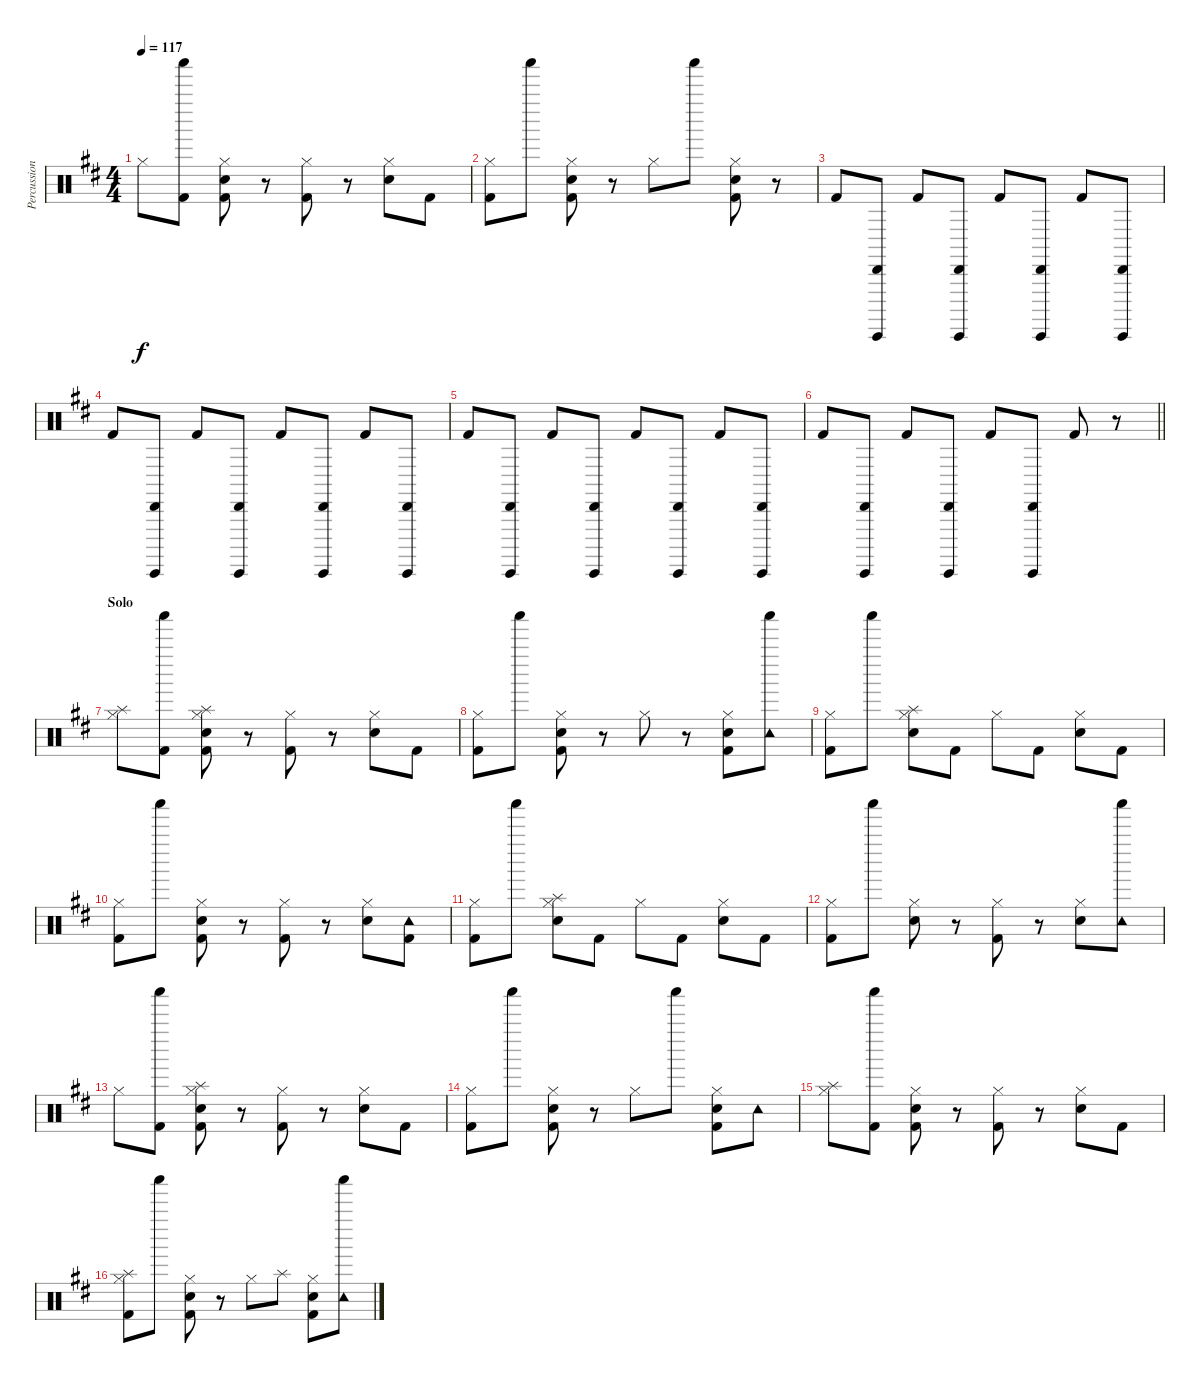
\track ("Percussion" "Percussion") {instrument percussion}
\staff {score}
\articulation defaults
\ts (4 4)
\tempo 117
\clef neutral
\ks d "Hi-Hat (closed)".8{dy f}
("Shaker (hit)" "Kick (hit) 2").8 ("Hi-Hat (closed)" "Snare (hit) 2" "Kick (hit) 2").8 r.8 ("Hi-Hat (closed)" "Kick (hit) 2").8 r.8 ("Hi-Hat (closed)" "Snare (hit) 2").8 "Kick (hit) 2".8 |
("Hi-Hat (closed)" "Kick (hit) 2").8 "Shaker (hit)".8 ("Hi-Hat (closed)" "Snare (hit) 2" "Kick (hit) 2").8 r.8 "Hi-Hat (closed)".8 "Shaker (hit)".8 ("Hi-Hat (closed)" "Snare (hit) 2" "Kick (hit) 2").8 r.8 |
"Kick (hit) 2".8 ("Guiro (hit)" "Cabasa (hit)").8 "Kick (hit) 2".8 ("Guiro (hit)" "Cabasa (hit)").8 "Kick (hit) 2".8 ("Guiro (hit)" "Cabasa (hit)").8 "Kick (hit) 2".8 ("Guiro (hit)" "Cabasa (hit)").8 |
"Kick (hit) 2".8 ("Guiro (hit)" "Cabasa (hit)").8 "Kick (hit) 2".8 ("Guiro (hit)" "Cabasa (hit)").8 "Kick (hit) 2".8 ("Guiro (hit)" "Cabasa (hit)").8 "Kick (hit) 2".8 ("Guiro (hit)" "Cabasa (hit)").8 |
"Kick (hit) 2".8 ("Guiro (hit)" "Cabasa (hit)").8 "Kick (hit) 2".8 ("Guiro (hit)" "Cabasa (hit)").8 "Kick (hit) 2".8 ("Guiro (hit)" "Cabasa (hit)").8 "Kick (hit) 2".8 ("Guiro (hit)" "Cabasa (hit)").8 |
\barLineRight lightlight "Kick (hit) 2".8
("Guiro (hit)" "Cabasa (hit)").8 "Kick (hit) 2".8 ("Guiro (hit)" "Cabasa (hit)").8 "Kick (hit) 2".8 ("Guiro (hit)" "Cabasa (hit)").8 "Kick (hit) 2".8 r.8 |
\section ("" "Solo")
("Hi-Hat (closed)" "Splash (hit)").8 ("Shaker (hit)" "Kick (hit) 2").8 ("Hi-Hat (closed)" "Splash (hit)" "Snare (hit) 2" "Kick (hit) 2").8 r.8 ("Hi-Hat (closed)" "Kick (hit) 2").8 r.8 ("Hi-Hat (closed)" "Snare (hit) 2").8 "Kick (hit) 2".8 |
("Hi-Hat (closed)" "Kick (hit) 2").8 "Shaker (hit)".8 ("Hi-Hat (closed)" "Snare (hit) 2" "Kick (hit) 2").8 r.8 "Hi-Hat (closed)".8 r.8 ("Hi-Hat (closed)" "Snare (hit) 2" "Kick (hit) 2").8 ("Shaker (hit)" "Tambourine (hit)").8 |
("Hi-Hat (closed)" "Kick (hit) 2").8 "Shaker (hit)".8 ("Hi-Hat (closed)" "Splash (hit)" "Snare (hit) 2").8 "Kick (hit) 2".8 "Hi-Hat (closed)".8 "Kick (hit) 2".8 ("Hi-Hat (closed)" "Snare (hit) 2").8 "Kick (hit) 2".8 |
("Hi-Hat (closed)" "Kick (hit) 2").8 "Shaker (hit)".8 ("Hi-Hat (closed)" "Snare (hit) 2" "Kick (hit) 2").8 r.8 ("Hi-Hat (closed)" "Kick (hit) 2").8 r.8 ("Hi-Hat (closed)" "Snare (hit) 2").8 ("Tambourine (hit)" "Kick (hit) 2").8 |
("Hi-Hat (closed)" "Kick (hit) 2").8 "Shaker (hit)".8 ("Hi-Hat (closed)" "Splash (hit)" "Snare (hit) 2").8 "Kick (hit) 2".8 "Hi-Hat (closed)".8 "Kick (hit) 2".8 ("Hi-Hat (closed)" "Snare (hit) 2").8 "Kick (hit) 2".8 |
("Hi-Hat (closed)" "Kick (hit) 2").8 "Shaker (hit)".8 ("Hi-Hat (closed)" "Snare (hit) 2").8 r.8 ("Hi-Hat (closed)" "Kick (hit) 2").8 r.8 ("Hi-Hat (closed)" "Snare (hit) 2").8 ("Shaker (hit)" "Tambourine (hit)").8 |
"Hi-Hat (closed)".8 ("Shaker (hit)" "Kick (hit) 2").8 ("Hi-Hat (closed)" "Splash (hit)" "Snare (hit) 2" "Kick (hit) 2").8 r.8 ("Hi-Hat (closed)" "Kick (hit) 2").8 r.8 ("Hi-Hat (closed)" "Snare (hit) 2").8 "Kick (hit) 2".8 |
("Hi-Hat (closed)" "Kick (hit) 2").8 "Shaker (hit)".8 ("Hi-Hat (closed)" "Snare (hit) 2" "Kick (hit) 2").8 r.8 "Hi-Hat (closed)".8 "Shaker (hit)".8 ("Hi-Hat (closed)" "Snare (hit) 2" "Kick (hit) 2").8 "Tambourine (hit)".8 |
("Hi-Hat (closed)" "Splash (hit)").8 ("Shaker (hit)" "Kick (hit) 2").8 ("Hi-Hat (closed)" "Snare (hit) 2" "Kick (hit) 2").8 r.8 ("Hi-Hat (closed)" "Kick (hit) 2").8 r.8 ("Hi-Hat (closed)" "Snare (hit) 2").8 "Kick (hit) 2".8 |
("Hi-Hat (closed)" "Splash (hit)" "Kick (hit) 2").8 "Shaker (hit)".8 ("Hi-Hat (closed)" "Snare (hit) 2" "Kick (hit) 2").8 r.8 "Hi-Hat (closed)".8 "Splash (hit)".8 ("Hi-Hat (closed)" "Snare (hit) 2" "Kick (hit) 2").8 ("Shaker (hit)" "Tambourine (hit)").8
